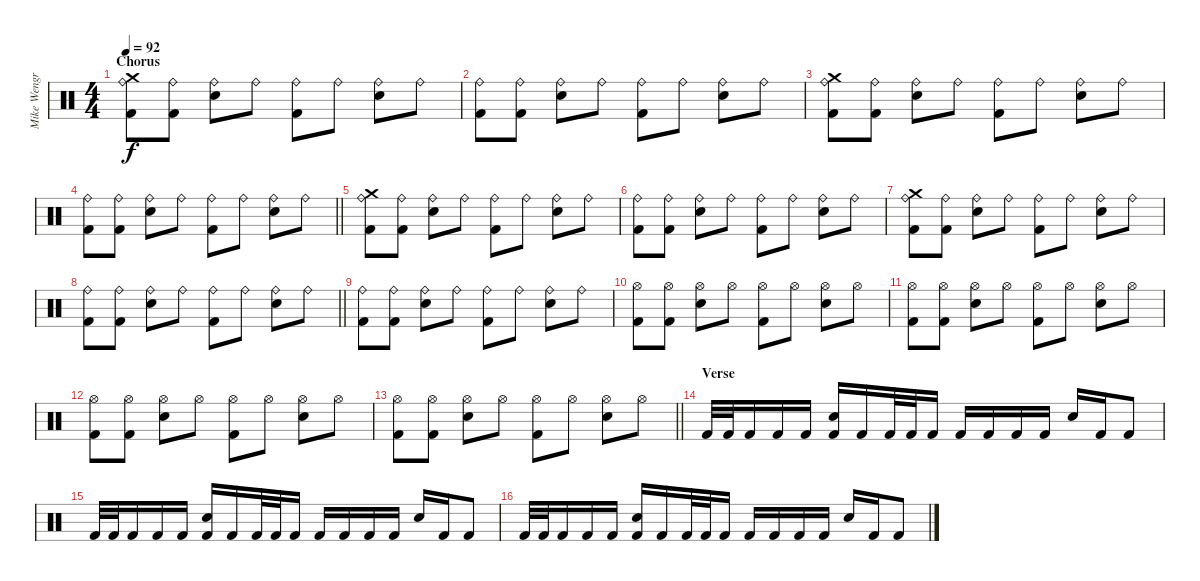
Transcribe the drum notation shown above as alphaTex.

\track ("Mike Wengren" "Mike Wengr") {instrument percussion}
\staff {score}
\articulation defaults
\ts (4 4)
\section ("" "Chorus")
\tempo 92
\clef neutral
\ks c
("Kick (hit) 2" "Ride (bell)" "Crash medium (hit)").8{dy f} ("Kick (hit) 2" "Ride (bell)").8 ("Electric Snare (hit)" "Ride (bell)").8 "Ride (bell)".8 ("Kick (hit) 2" "Ride (bell)").8 "Ride (bell)".8 ("Electric Snare (hit)" "Ride (bell)").8 "Ride (bell)".8 |
("Kick (hit) 2" "Ride (bell)").8 ("Kick (hit) 2" "Ride (bell)").8 ("Electric Snare (hit)" "Ride (bell)").8 "Ride (bell)".8 ("Kick (hit) 2" "Ride (bell)").8 "Ride (bell)".8 ("Electric Snare (hit)" "Ride (bell)").8 "Ride (bell)".8 |
("Kick (hit) 2" "Ride (bell)" "Crash medium (hit)").8 ("Kick (hit) 2" "Ride (bell)").8 ("Electric Snare (hit)" "Ride (bell)").8 "Ride (bell)".8 ("Kick (hit) 2" "Ride (bell)").8 "Ride (bell)".8 ("Electric Snare (hit)" "Ride (bell)").8 "Ride (bell)".8 |
\barLineRight lightlight
("Kick (hit) 2" "Ride (bell)").8 ("Kick (hit) 2" "Ride (bell)").8 ("Electric Snare (hit)" "Ride (bell)").8 "Ride (bell)".8 ("Kick (hit) 2" "Ride (bell)").8 "Ride (bell)".8 ("Electric Snare (hit)" "Ride (bell)").8 "Ride (bell)".8 |
("Kick (hit) 2" "Ride (bell)" "Crash medium (hit)").8 ("Kick (hit) 2" "Ride (bell)").8 ("Electric Snare (hit)" "Ride (bell)").8 "Ride (bell)".8 ("Kick (hit) 2" "Ride (bell)").8 "Ride (bell)".8 ("Electric Snare (hit)" "Ride (bell)").8 "Ride (bell)".8 |
("Kick (hit) 2" "Ride (bell)").8 ("Kick (hit) 2" "Ride (bell)").8 ("Electric Snare (hit)" "Ride (bell)").8 "Ride (bell)".8 ("Kick (hit) 2" "Ride (bell)").8 "Ride (bell)".8 ("Electric Snare (hit)" "Ride (bell)").8 "Ride (bell)".8 |
("Kick (hit) 2" "Ride (bell)" "Crash medium (hit)").8 ("Kick (hit) 2" "Ride (bell)").8 ("Electric Snare (hit)" "Ride (bell)").8 "Ride (bell)".8 ("Kick (hit) 2" "Ride (bell)").8 "Ride (bell)".8 ("Electric Snare (hit)" "Ride (bell)").8 "Ride (bell)".8 |
\barLineRight lightlight
("Kick (hit) 2" "Ride (bell)").8 ("Kick (hit) 2" "Ride (bell)").8 ("Electric Snare (hit)" "Ride (bell)").8 "Ride (bell)".8 ("Kick (hit) 2" "Ride (bell)").8 "Ride (bell)".8 ("Electric Snare (hit)" "Ride (bell)").8 "Ride (bell)".8 |
("Kick (hit) 2" "Ride (bell)").8 ("Kick (hit) 2" "Ride (bell)").8 ("Electric Snare (hit)" "Ride (bell)").8 "Ride (bell)".8 ("Kick (hit) 2" "Ride (bell)").8 "Ride (bell)".8 ("Electric Snare (hit)" "Ride (bell)").8 "Ride (bell)".8 |
("Kick (hit) 2" "Hi-Hat (open)").8 ("Kick (hit) 2" "Hi-Hat (open)").8 ("Electric Snare (hit)" "Hi-Hat (open)").8 "Hi-Hat (open)".8 ("Kick (hit) 2" "Hi-Hat (open)").8 "Hi-Hat (open)".8 ("Electric Snare (hit)" "Hi-Hat (open)").8 "Hi-Hat (open)".8 |
("Kick (hit) 2" "Hi-Hat (open)").8 ("Kick (hit) 2" "Hi-Hat (open)").8 ("Electric Snare (hit)" "Hi-Hat (open)").8 "Hi-Hat (open)".8 ("Kick (hit) 2" "Hi-Hat (open)").8 "Hi-Hat (open)".8 ("Electric Snare (hit)" "Hi-Hat (open)").8 "Hi-Hat (open)".8 |
("Kick (hit) 2" "Hi-Hat (open)").8 ("Kick (hit) 2" "Hi-Hat (open)").8 ("Electric Snare (hit)" "Hi-Hat (open)").8 "Hi-Hat (open)".8 ("Kick (hit) 2" "Hi-Hat (open)").8 "Hi-Hat (open)".8 ("Electric Snare (hit)" "Hi-Hat (open)").8 "Hi-Hat (open)".8 |
\barLineRight lightlight
("Kick (hit) 2" "Hi-Hat (open)").8 ("Kick (hit) 2" "Hi-Hat (open)").8 ("Electric Snare (hit)" "Hi-Hat (open)").8 "Hi-Hat (open)".8 ("Kick (hit) 2" "Hi-Hat (open)").8 "Hi-Hat (open)".8 ("Electric Snare (hit)" "Hi-Hat (open)").8 "Hi-Hat (open)".8 |
\section ("" "Verse")
"Kick (hit) 2".32 "Kick (hit) 2".32 "Kick (hit) 2".16 "Kick (hit) 2".16 "Kick (hit) 2".16 ("Kick (hit) 2" "Electric Snare (hit)").16 "Kick (hit) 2".16 "Kick (hit) 2".32 "Kick (hit) 2".32 "Kick (hit) 2".16 "Kick (hit) 2".16 "Kick (hit) 2".16 "Kick (hit) 2".16 "Kick (hit) 2".16 "Electric Snare (hit)".16 "Kick (hit) 2".16 "Kick (hit) 2".8 |
"Kick (hit) 2".32 "Kick (hit) 2".32 "Kick (hit) 2".16 "Kick (hit) 2".16 "Kick (hit) 2".16 ("Kick (hit) 2" "Electric Snare (hit)").16 "Kick (hit) 2".16 "Kick (hit) 2".32 "Kick (hit) 2".32 "Kick (hit) 2".16 "Kick (hit) 2".16 "Kick (hit) 2".16 "Kick (hit) 2".16 "Kick (hit) 2".16 "Electric Snare (hit)".16 "Kick (hit) 2".16 "Kick (hit) 2".8 |
"Kick (hit) 2".32 "Kick (hit) 2".32 "Kick (hit) 2".16 "Kick (hit) 2".16 "Kick (hit) 2".16 ("Kick (hit) 2" "Electric Snare (hit)").16 "Kick (hit) 2".16 "Kick (hit) 2".32 "Kick (hit) 2".32 "Kick (hit) 2".16 "Kick (hit) 2".16 "Kick (hit) 2".16 "Kick (hit) 2".16 "Kick (hit) 2".16 "Electric Snare (hit)".16 "Kick (hit) 2".16 "Kick (hit) 2".8
